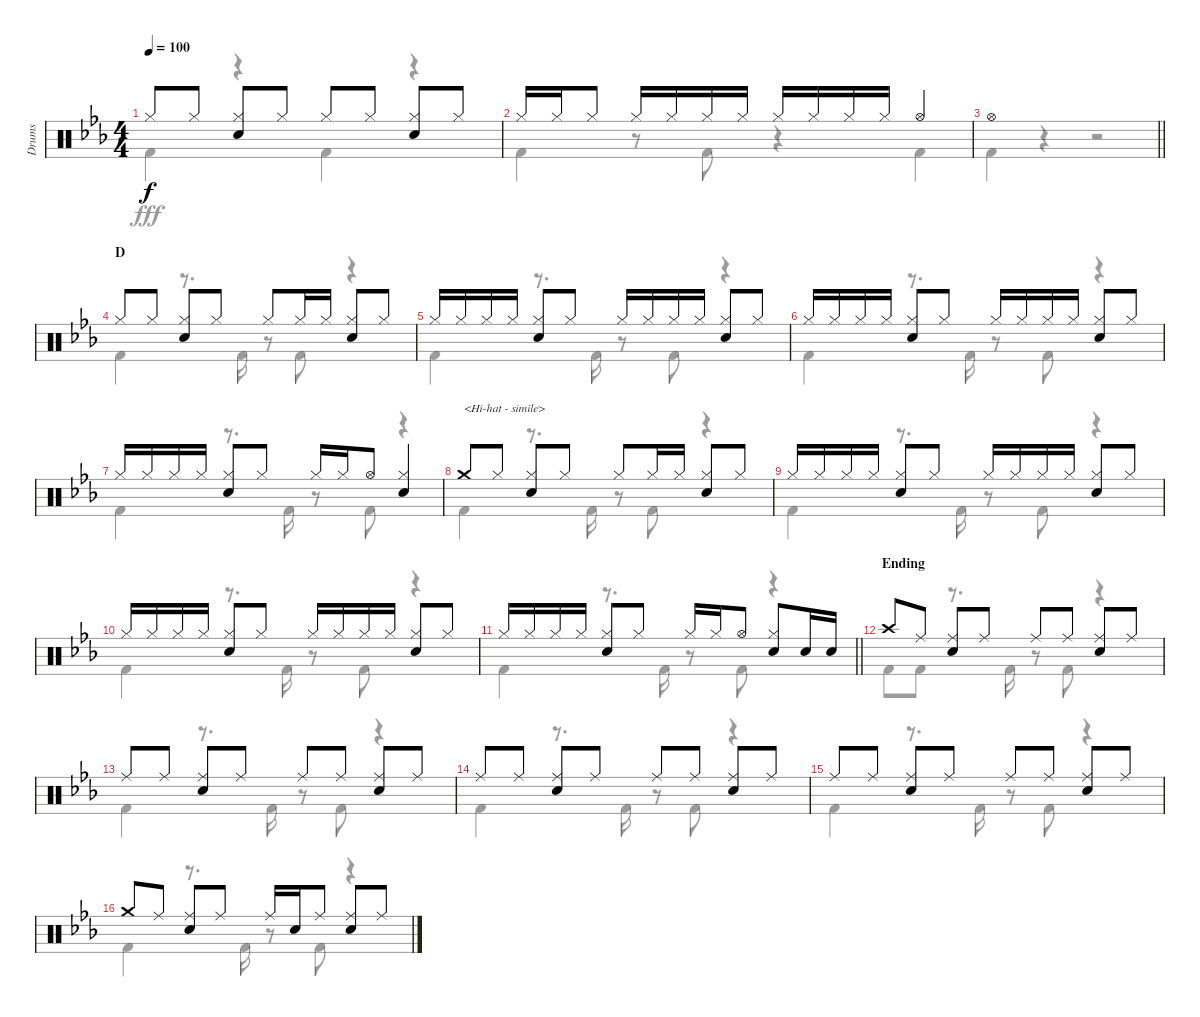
\track ("Drums" "Drums") {instrument percussion}
\staff {score}
\articulation defaults
\voice
\ts (4 4)
\tempo 100
\clef neutral
\ks eb "Hi-Hat (closed)".8{dy f} "Hi-Hat (closed)".8
("Hi-Hat (closed)" "Snare (hit) 2").8 "Hi-Hat (closed)".8 "Hi-Hat (closed)".8 "Hi-Hat (closed)".8 ("Hi-Hat (closed)" "Snare (hit) 2").8 "Hi-Hat (closed)".8 |
"Hi-Hat (closed)".16 "Hi-Hat (closed)".16 "Hi-Hat (closed)".8 "Hi-Hat (closed)".16 "Hi-Hat (closed)".16 "Hi-Hat (closed)".16 "Hi-Hat (closed)".16 "Hi-Hat (closed)".16 "Hi-Hat (closed)".16 "Hi-Hat (closed)".16 "Hi-Hat (closed)".16 "Hi-Hat (open)".4 |
\barLineRight lightlight "Hi-Hat (open)".1
|
\section ("" "D")
"Hi-Hat (closed)".8 "Hi-Hat (closed)".8 ("Hi-Hat (closed)" "Snare (hit) 2").8 "Hi-Hat (closed)".8 "Hi-Hat (closed)".8 "Hi-Hat (closed)".16 "Hi-Hat (closed)".16 ("Hi-Hat (closed)" "Snare (hit) 2").8 "Hi-Hat (closed)".8 |
"Hi-Hat (closed)".16 "Hi-Hat (closed)".16 "Hi-Hat (closed)".16 "Hi-Hat (closed)".16 ("Hi-Hat (closed)" "Snare (hit) 2").8 "Hi-Hat (closed)".8 "Hi-Hat (closed)".16 "Hi-Hat (closed)".16 "Hi-Hat (closed)".16 "Hi-Hat (closed)".16 ("Hi-Hat (closed)" "Snare (hit) 2").8 "Hi-Hat (closed)".8 |
"Hi-Hat (closed)".16 "Hi-Hat (closed)".16 "Hi-Hat (closed)".16 "Hi-Hat (closed)".16 ("Hi-Hat (closed)" "Snare (hit) 2").8 "Hi-Hat (closed)".8 "Hi-Hat (closed)".16 "Hi-Hat (closed)".16 "Hi-Hat (closed)".16 "Hi-Hat (closed)".16 ("Hi-Hat (closed)" "Snare (hit) 2").8 "Hi-Hat (closed)".8 |
"Hi-Hat (closed)".16 "Hi-Hat (closed)".16 "Hi-Hat (closed)".16 "Hi-Hat (closed)".16 ("Hi-Hat (closed)" "Snare (hit) 2").8 "Hi-Hat (closed)".8 "Hi-Hat (closed)".16 "Hi-Hat (closed)".16 "Hi-Hat (open)".8 ("Hi-Hat (closed)" "Snare (hit) 2").4 |
"Crash medium (hit)".8{txt "<Hi-hat - simile>"} "Hi-Hat (closed)".8 ("Hi-Hat (closed)" "Snare (hit) 2").8 "Hi-Hat (closed)".8 "Hi-Hat (closed)".8 "Hi-Hat (closed)".16 "Hi-Hat (closed)".16 ("Hi-Hat (closed)" "Snare (hit) 2").8 "Hi-Hat (closed)".8 |
"Hi-Hat (closed)".16 "Hi-Hat (closed)".16 "Hi-Hat (closed)".16 "Hi-Hat (closed)".16 ("Hi-Hat (closed)" "Snare (hit) 2").8 "Hi-Hat (closed)".8 "Hi-Hat (closed)".16 "Hi-Hat (closed)".16 "Hi-Hat (closed)".16 "Hi-Hat (closed)".16 ("Hi-Hat (closed)" "Snare (hit) 2").8 "Hi-Hat (closed)".8 |
"Hi-Hat (closed)".16 "Hi-Hat (closed)".16 "Hi-Hat (closed)".16 "Hi-Hat (closed)".16 ("Hi-Hat (closed)" "Snare (hit) 2").8 "Hi-Hat (closed)".8 "Hi-Hat (closed)".16 "Hi-Hat (closed)".16 "Hi-Hat (closed)".16 "Hi-Hat (closed)".16 ("Hi-Hat (closed)" "Snare (hit) 2").8 "Hi-Hat (closed)".8 |
\barLineRight lightlight "Hi-Hat (closed)".16 "Hi-Hat (closed)".16 "Hi-Hat (closed)".16 "Hi-Hat (closed)".16
("Hi-Hat (closed)" "Snare (hit) 2").8 "Hi-Hat (closed)".8 "Hi-Hat (closed)".16 "Hi-Hat (closed)".16 "Hi-Hat (open)".8 ("Hi-Hat (closed)" "Snare (hit) 2").8 "Snare (hit) 2".16 "Snare (hit) 2".16 |
\section ("" "Ending")
"Crash high (hit)".8 "Ride (middle)".8 ("Ride (middle)" "Snare (hit) 2").8 "Ride (middle)".8 "Ride (middle)".8 "Ride (middle)".8 ("Ride (middle)" "Snare (hit) 2").8 "Ride (middle)".8 |
"Ride (middle)".8 "Ride (middle)".8 ("Ride (middle)" "Snare (hit) 2").8 "Ride (middle)".8 "Ride (middle)".8 "Ride (middle)".8 ("Ride (middle)" "Snare (hit) 2").8 "Ride (middle)".8 |
"Ride (middle)".8 "Ride (middle)".8 ("Ride (middle)" "Snare (hit) 2").8 "Ride (middle)".8 "Ride (middle)".8 "Ride (middle)".8 ("Ride (middle)" "Snare (hit) 2").8 "Ride (middle)".8 |
"Ride (middle)".8 "Ride (middle)".8 ("Ride (middle)" "Snare (hit) 2").8 "Ride (middle)".8 "Ride (middle)".8 "Ride (middle)".8 ("Ride (middle)" "Snare (hit) 2").8 "Ride (middle)".8 |
"Crash medium (hit)".8 "Ride (middle)".8 ("Ride (middle)" "Snare (hit) 2").8 "Ride (middle)".8 "Ride (middle)".16 "Snare (hit) 2".16 "Ride (middle)".8 ("Ride (middle)" "Snare (hit) 2").8 "Ride (middle)".8
\voice
\clef neutral
\ottava regular
\simile none
\ks eb "Kick (hit) 2".4{dy fff}
r.4 "Kick (hit) 2".4 r.4 |
"Kick (hit) 2".4 r.8 "Kick (hit) 2".8 r.4 "Kick (hit) 2".4 |
\barLineRight lightlight "Kick (hit) 2".4
r.4 r.2 |
"Kick (hit) 2".4 r.8{d} "Kick (hit) 2".16 r.8 "Kick (hit) 2".8 r.4 |
"Kick (hit) 2".4 r.8{d} "Kick (hit) 2".16 r.8 "Kick (hit) 2".8 r.4 |
"Kick (hit) 2".4 r.8{d} "Kick (hit) 2".16 r.8 "Kick (hit) 2".8 r.4 |
"Kick (hit) 2".4 r.8{d} "Kick (hit) 2".16 r.8 "Kick (hit) 2".8 r.4 |
"Kick (hit) 2".4 r.8{d} "Kick (hit) 2".16 r.8 "Kick (hit) 2".8 r.4 |
"Kick (hit) 2".4 r.8{d} "Kick (hit) 2".16 r.8 "Kick (hit) 2".8 r.4 |
"Kick (hit) 2".4 r.8{d} "Kick (hit) 2".16 r.8 "Kick (hit) 2".8 r.4 |
\barLineRight lightlight "Kick (hit) 2".4
r.8{d} "Kick (hit) 2".16 r.8 "Kick (hit) 2".8 r.4 |
"Kick (hit) 2".8 "Kick (hit) 2".8 r.8{d} "Kick (hit) 2".16 r.8 "Kick (hit) 2".8 r.4 |
"Kick (hit) 2".4 r.8{d} "Kick (hit) 2".16 r.8 "Kick (hit) 2".8 r.4 |
"Kick (hit) 2".4 r.8{d} "Kick (hit) 2".16 r.8 "Kick (hit) 2".8 r.4 |
"Kick (hit) 2".4 r.8{d} "Kick (hit) 2".16 r.8 "Kick (hit) 2".8 r.4 |
"Kick (hit) 2".4 r.8{d} "Kick (hit) 2".16 r.8 "Kick (hit) 2".8 r.4
